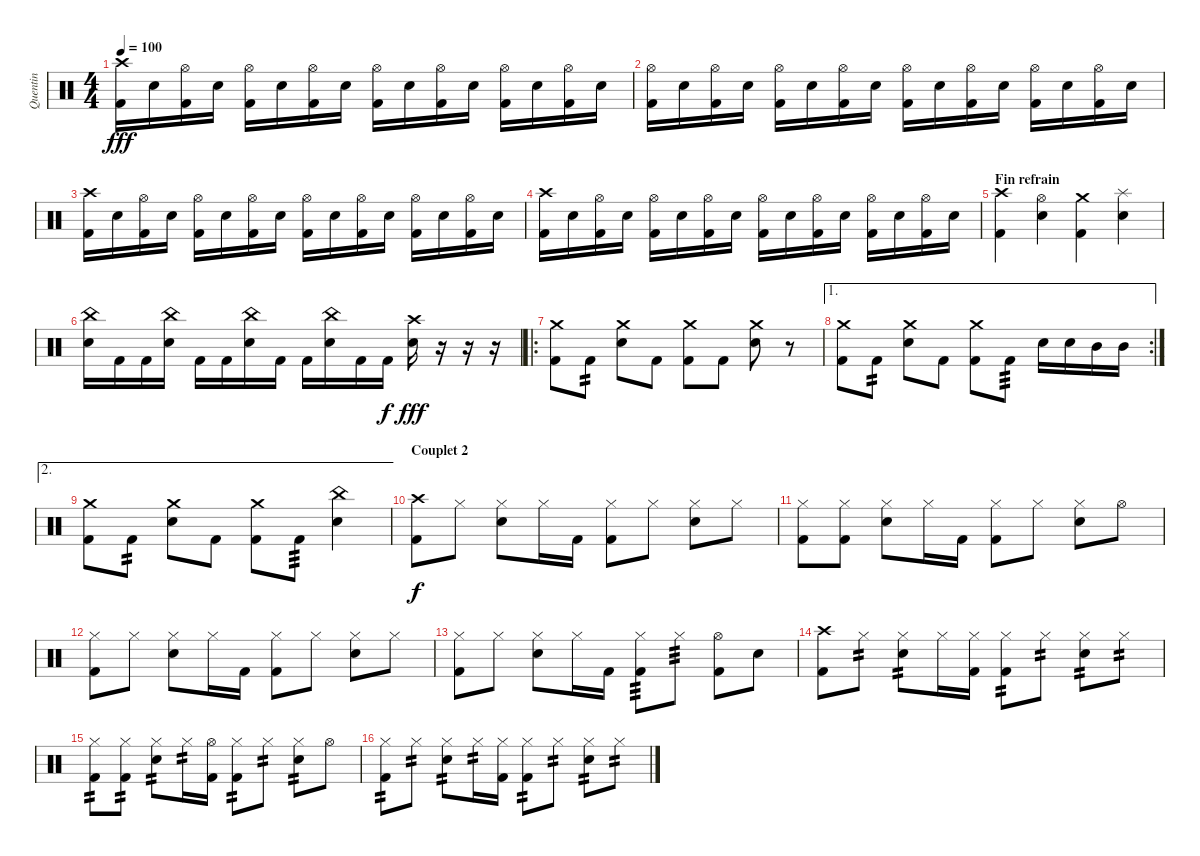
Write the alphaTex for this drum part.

\track ("Quentin" "Quentin") {instrument percussion}
\staff {score}
\articulation defaults
\ts (4 4)
\tempo 100
\clef neutral
\ks c
("Crash high (hit)" "Kick (hit) 2").16{dy fff} "Electric Snare (hit)".16 ("Hi-Hat (open)" "Kick (hit) 2").16 "Electric Snare (hit)".16 ("Hi-Hat (open)" "Kick (hit) 2").16 "Electric Snare (hit)".16 ("Hi-Hat (open)" "Kick (hit) 2").16 "Electric Snare (hit)".16 ("Hi-Hat (open)" "Kick (hit) 2").16 "Electric Snare (hit)".16 ("Hi-Hat (open)" "Kick (hit) 2").16 "Electric Snare (hit)".16 ("Hi-Hat (open)" "Kick (hit) 2").16 "Electric Snare (hit)".16 ("Hi-Hat (open)" "Kick (hit) 2").16 "Electric Snare (hit)".16 |
("Hi-Hat (open)" "Kick (hit) 2").16 "Electric Snare (hit)".16 ("Hi-Hat (open)" "Kick (hit) 2").16 "Electric Snare (hit)".16 ("Hi-Hat (open)" "Kick (hit) 2").16 "Electric Snare (hit)".16 ("Hi-Hat (open)" "Kick (hit) 2").16 "Electric Snare (hit)".16 ("Hi-Hat (open)" "Kick (hit) 2").16 "Electric Snare (hit)".16 ("Hi-Hat (open)" "Kick (hit) 2").16 "Electric Snare (hit)".16 ("Hi-Hat (open)" "Kick (hit) 2").16 "Electric Snare (hit)".16 ("Hi-Hat (open)" "Kick (hit) 2").16 "Electric Snare (hit)".16 |
("Crash high (hit)" "Kick (hit) 2").16 "Electric Snare (hit)".16 ("Hi-Hat (open)" "Kick (hit) 2").16 "Electric Snare (hit)".16 ("Hi-Hat (open)" "Kick (hit) 2").16 "Electric Snare (hit)".16 ("Hi-Hat (open)" "Kick (hit) 2").16 "Electric Snare (hit)".16 ("Hi-Hat (open)" "Kick (hit) 2").16 "Electric Snare (hit)".16 ("Hi-Hat (open)" "Kick (hit) 2").16 "Electric Snare (hit)".16 ("Hi-Hat (open)" "Kick (hit) 2").16 "Electric Snare (hit)".16 ("Hi-Hat (open)" "Kick (hit) 2").16 "Electric Snare (hit)".16 |
("Crash high (hit)" "Kick (hit) 2").16 "Electric Snare (hit)".16 ("Hi-Hat (open)" "Kick (hit) 2").16 "Electric Snare (hit)".16 ("Hi-Hat (open)" "Kick (hit) 2").16 "Electric Snare (hit)".16 ("Hi-Hat (open)" "Kick (hit) 2").16 "Electric Snare (hit)".16 ("Hi-Hat (open)" "Kick (hit) 2").16 "Electric Snare (hit)".16 ("Hi-Hat (open)" "Kick (hit) 2").16 "Electric Snare (hit)".16 ("Hi-Hat (open)" "Kick (hit) 2").16 "Electric Snare (hit)".16 ("Hi-Hat (open)" "Kick (hit) 2").16 "Electric Snare (hit)".16 |
\section ("" "Fin refrain")
("Crash high (hit)" "Kick (hit) 2").4 ("Hi-Hat (open)" "Electric Snare (hit)").4 ("Crash medium (hit)" "Kick (hit) 2").4 ("Splash (hit)" "Electric Snare (hit)").4 |
("China (hit)" "Electric Snare (hit)").16 "Kick (hit) 2".16 "Kick (hit) 2".16 ("China (hit)" "Electric Snare (hit)").16 "Kick (hit) 2".16 "Kick (hit) 2".16 ("China (hit)" "Electric Snare (hit)").16 "Kick (hit) 2".16 "Kick (hit) 2".16 ("China (hit)" "Electric Snare (hit)").16 "Kick (hit) 2".16 "Kick (hit) 2".16{dy f} ("Crash high (hit)" "Electric Snare (hit)").16{dy fff} r.16 r.16 r.16 |
\ro
("Crash medium (hit)" "Kick (hit) 2").8 "Kick (hit) 2".8{tp 2} ("Crash medium (hit)" "Electric Snare (hit)").8 "Kick (hit) 2".8 ("Crash medium (hit)" "Kick (hit) 2").8 "Kick (hit) 2".8 ("Crash medium (hit)" "Electric Snare (hit)").8 r.8 |
\ae 1
\rc 2
("Crash medium (hit)" "Kick (hit) 2").8 "Kick (hit) 2".8{tp 2} ("Crash medium (hit)" "Electric Snare (hit)").8 "Kick (hit) 2".8 ("Crash medium (hit)" "Kick (hit) 2").8 "Kick (hit) 2".8{tp 3} "Electric Snare (hit)".16 "Electric Snare (hit)".16 "Mid Tom (hit)".16 "Mid Tom (hit)".16 |
\ae 2
("Crash medium (hit)" "Kick (hit) 2").8 "Kick (hit) 2".8{tp 2} ("Crash medium (hit)" "Electric Snare (hit)").8 "Kick (hit) 2".8 ("Crash medium (hit)" "Kick (hit) 2").8 "Kick (hit) 2".8{tp 3} ("China (hit)" "Electric Snare (hit)").4 |
\section ("" "Couplet 2")
("Crash high (hit)" "Kick (hit) 2").8{dy f} "Hi-Hat (closed)".8 ("Hi-Hat (closed)" "Snare (hit) 2").8 "Hi-Hat (closed)".16 "Kick (hit) 2".16 ("Hi-Hat (closed)" "Kick (hit) 2").8 "Hi-Hat (closed)".8 ("Hi-Hat (closed)" "Snare (hit) 2").8 "Hi-Hat (closed)".8 |
("Hi-Hat (closed)" "Kick (hit) 2").8 ("Hi-Hat (closed)" "Kick (hit) 2").8 ("Hi-Hat (closed)" "Snare (hit) 2").8 "Hi-Hat (closed)".16 "Kick (hit) 2".16 ("Hi-Hat (closed)" "Kick (hit) 2").8 "Hi-Hat (closed)".8 ("Hi-Hat (closed)" "Snare (hit) 2").8 "Hi-Hat (open)".8 |
("Hi-Hat (closed)" "Kick (hit) 2").8 "Hi-Hat (closed)".8 ("Hi-Hat (closed)" "Snare (hit) 2").8 "Hi-Hat (closed)".16 "Kick (hit) 2".16 ("Hi-Hat (closed)" "Kick (hit) 2").8 "Hi-Hat (closed)".8 ("Hi-Hat (closed)" "Snare (hit) 2").8 "Hi-Hat (closed)".8 |
("Hi-Hat (closed)" "Kick (hit) 2").8 "Hi-Hat (closed)".8 ("Hi-Hat (closed)" "Snare (hit) 2").8 "Hi-Hat (closed)".16 "Kick (hit) 2".16 ("Hi-Hat (closed)" "Kick (hit) 2").8{tp 3} "Hi-Hat (closed)".8{tp 3} ("Hi-Hat (open)" "Kick (hit) 2").8 "Snare (hit) 2".8 |
("Crash high (hit)" "Kick (hit) 2").8 "Hi-Hat (closed)".8{tp 2} ("Hi-Hat (closed)" "Snare (hit) 2").8{tp 2} "Hi-Hat (closed)".16 ("Hi-Hat (closed)" "Kick (hit) 2").16 ("Hi-Hat (closed)" "Kick (hit) 2").8{tp 2} "Hi-Hat (closed)".8{tp 2} ("Hi-Hat (closed)" "Snare (hit) 2").8{tp 2} "Hi-Hat (closed)".8{tp 2} |
("Hi-Hat (closed)" "Kick (hit) 2").8{tp 2} ("Hi-Hat (closed)" "Kick (hit) 2").8{tp 2} ("Hi-Hat (closed)" "Snare (hit) 2").8{tp 2} "Hi-Hat (closed)".16{tp 2} ("Hi-Hat (open)" "Kick (hit) 2").16 ("Hi-Hat (closed)" "Kick (hit) 2").8{tp 2} "Hi-Hat (closed)".8{tp 2} ("Hi-Hat (closed)" "Snare (hit) 2").8{tp 2} "Hi-Hat (open)".8 |
("Hi-Hat (closed)" "Kick (hit) 2").8{tp 2} "Hi-Hat (closed)".8{tp 2} ("Hi-Hat (closed)" "Snare (hit) 2").8{tp 2} "Hi-Hat (closed)".16{tp 2} ("Hi-Hat (closed)" "Kick (hit) 2").16 ("Hi-Hat (closed)" "Kick (hit) 2").8{tp 2} "Hi-Hat (closed)".8{tp 2} ("Hi-Hat (closed)" "Snare (hit) 2").8{tp 2} "Hi-Hat (closed)".8{tp 2}
